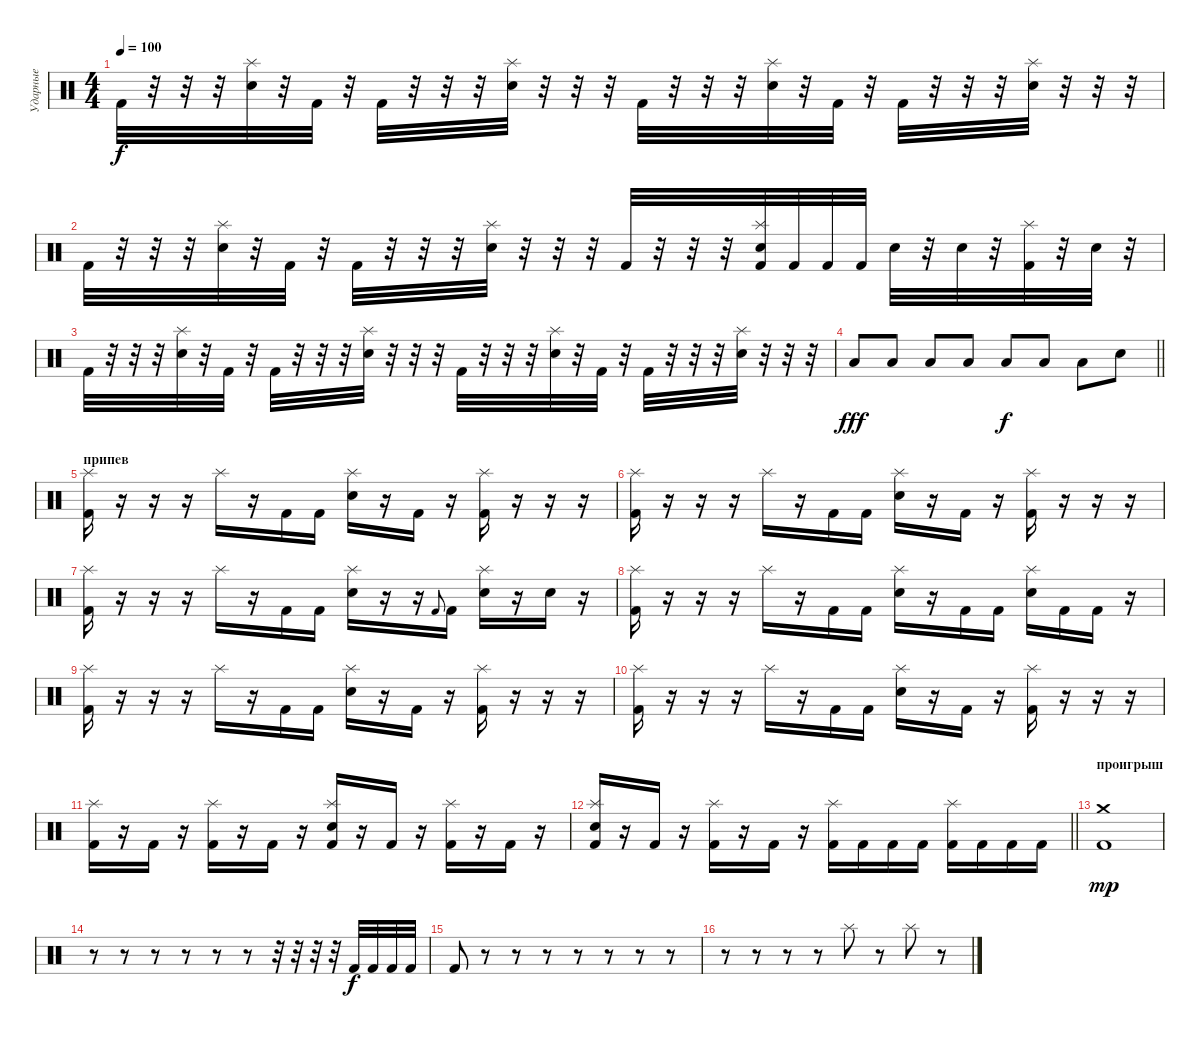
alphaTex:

\track ("Ударные" "Ударные") {instrument percussion}
\staff {score}
\articulation defaults
\ts (4 4)
\tempo 100
\clef neutral
\ks c "Kick (hit) 2".32{dy f}
r.32 r.32 r.32 ("Splash (hit)" "Electric Snare (hit)").32 r.32 "Kick (hit) 2".32 r.32 "Kick (hit) 2".32 r.32 r.32 r.32 ("Splash (hit)" "Electric Snare (hit)").32 r.32 r.32 r.32 "Kick (hit) 2".32 r.32 r.32 r.32 ("Splash (hit)" "Electric Snare (hit)").32 r.32 "Kick (hit) 2".32 r.32 "Kick (hit) 2".32 r.32 r.32 r.32 ("Splash (hit)" "Electric Snare (hit)").32 r.32 r.32 r.32 |
"Kick (hit) 2".32 r.32 r.32 r.32 ("Splash (hit)" "Electric Snare (hit)").32 r.32 "Kick (hit) 2".32 r.32 "Kick (hit) 2".32 r.32 r.32 r.32 ("Splash (hit)" "Electric Snare (hit)").32 r.32 r.32 r.32 "Kick (hit) 2".32 r.32 r.32 r.32 ("Splash (hit)" "Electric Snare (hit)" "Kick (hit) 2").32 "Kick (hit) 2".32 "Kick (hit) 2".32 "Kick (hit) 2".32 "Electric Snare (hit)".32 r.32 "Electric Snare (hit)".32 r.32 ("Splash (hit)" "Kick (hit) 2").32 r.32 "Electric Snare (hit)".32 r.32 |
"Kick (hit) 2".32 r.32 r.32 r.32 ("Splash (hit)" "Electric Snare (hit)").32 r.32 "Kick (hit) 2".32 r.32 "Kick (hit) 2".32 r.32 r.32 r.32 ("Splash (hit)" "Electric Snare (hit)").32 r.32 r.32 r.32 "Kick (hit) 2".32 r.32 r.32 r.32 ("Splash (hit)" "Electric Snare (hit)").32 r.32 "Kick (hit) 2".32 r.32 "Kick (hit) 2".32 r.32 r.32 r.32 ("Splash (hit)" "Electric Snare (hit)").32 r.32 r.32 r.32 |
\barLineRight lightlight "Low Floor Tom (hit)".8{dy fff} "Low Floor Tom (hit)".8 "Low Floor Tom (hit)".8 "Low Floor Tom (hit)".8 "Low Floor Tom (hit)".8{dy f} "Low Floor Tom (hit)".8 "Low Floor Tom (hit)".8 "Electric Snare (hit)".8
|
\section ("" "припев")
("Splash (hit)" "Kick (hit) 2").16 r.16 r.16 r.16 "Splash (hit)".16 r.16 "Kick (hit) 2".16 "Kick (hit) 2".16 ("Splash (hit)" "Electric Snare (hit)").16 r.16 "Kick (hit) 2".16 r.16 ("Splash (hit)" "Kick (hit) 2").16 r.16 r.16 r.16 |
("Splash (hit)" "Kick (hit) 2").16 r.16 r.16 r.16 "Splash (hit)".16 r.16 "Kick (hit) 2".16 "Kick (hit) 2".16 ("Splash (hit)" "Electric Snare (hit)").16 r.16 "Kick (hit) 2".16 r.16 ("Splash (hit)" "Kick (hit) 2").16 r.16 r.16 r.16 |
("Splash (hit)" "Kick (hit) 2").16 r.16 r.16 r.16 "Splash (hit)".16 r.16 "Kick (hit) 2".16 "Kick (hit) 2".16 ("Splash (hit)" "Electric Snare (hit)").16 r.16 r.16 "Kick (hit) 2".8{gr onbeat} "Kick (hit) 2".16 ("Splash (hit)" "Electric Snare (hit)").16 r.16 "Electric Snare (hit)".16 r.16 |
("Splash (hit)" "Kick (hit) 2").16 r.16 r.16 r.16 "Splash (hit)".16 r.16 "Kick (hit) 2".16 "Kick (hit) 2".16 ("Splash (hit)" "Electric Snare (hit)").16 r.16 "Kick (hit) 2".16 "Kick (hit) 2".16 ("Splash (hit)" "Electric Snare (hit)").16 "Kick (hit) 2".16 "Kick (hit) 2".16 r.16 |
("Splash (hit)" "Kick (hit) 2").16 r.16 r.16 r.16 "Splash (hit)".16 r.16 "Kick (hit) 2".16 "Kick (hit) 2".16 ("Splash (hit)" "Electric Snare (hit)").16 r.16 "Kick (hit) 2".16 r.16 ("Splash (hit)" "Kick (hit) 2").16 r.16 r.16 r.16 |
("Splash (hit)" "Kick (hit) 2").16 r.16 r.16 r.16 "Splash (hit)".16 r.16 "Kick (hit) 2".16 "Kick (hit) 2".16 ("Splash (hit)" "Electric Snare (hit)").16 r.16 "Kick (hit) 2".16 r.16 ("Splash (hit)" "Kick (hit) 2").16 r.16 r.16 r.16 |
("Splash (hit)" "Kick (hit) 2").16 r.16 "Kick (hit) 2".16 r.16 ("Splash (hit)" "Kick (hit) 2").16 r.16 "Kick (hit) 2".16 r.16 ("Splash (hit)" "Electric Snare (hit)" "Kick (hit) 2").16 r.16 "Kick (hit) 2".16 r.16 ("Splash (hit)" "Kick (hit) 2").16 r.16 "Kick (hit) 2".16 r.16 |
\barLineRight lightlight
("Splash (hit)" "Electric Snare (hit)" "Kick (hit) 2").16 r.16 "Kick (hit) 2".16 r.16 ("Splash (hit)" "Kick (hit) 2").16 r.16 "Kick (hit) 2".16 r.16 ("Splash (hit)" "Kick (hit) 2").16 "Kick (hit) 2".16 "Kick (hit) 2".16 "Kick (hit) 2".16 ("Splash (hit)" "Kick (hit) 2").16 "Kick (hit) 2".16 "Kick (hit) 2".16 "Kick (hit) 2".16 |
\section ("" "проигрыш")
("Crash medium (hit)" "Kick (hit) 2").1{dy mp} |
r.8 r.8 r.8 r.8 r.8 r.8 r.32 r.32 r.32 r.32 "Kick (hit) 2".32{dy f} "Kick (hit) 2".32 "Kick (hit) 2".32 "Kick (hit) 2".32 |
"Kick (hit) 2".8 r.8 r.8 r.8 r.8 r.8 r.8 r.8 |
r.8 r.8 r.8 r.8 "Splash (hit)".8 r.8 "Splash (hit)".8 r.8
